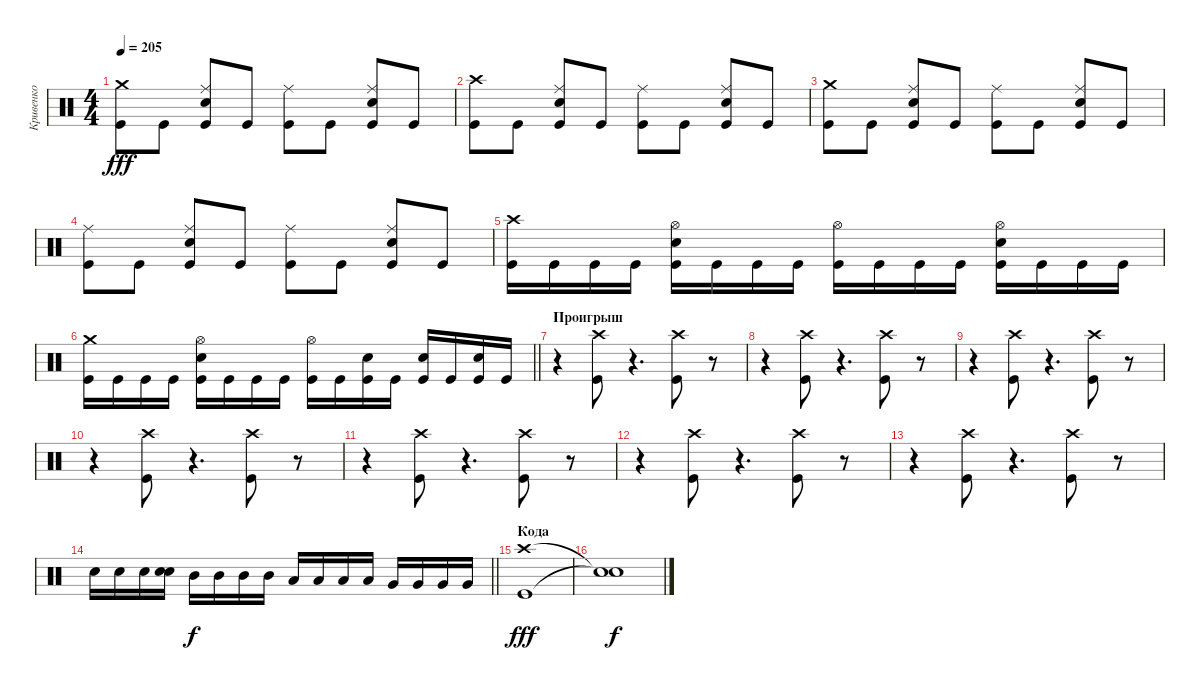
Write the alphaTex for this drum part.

\track ("Кривенко" "Кривенко") {instrument percussion}
\staff {score}
\articulation defaults
\ts (4 4)
\tempo 205
\clef neutral
\ks c
("Crash medium (hit)" "Kick (hit)").8{dy fff} "Kick (hit)".8 ("Ride (middle)" "Electric Snare (hit)" "Kick (hit)").8 "Kick (hit)".8 ("Ride (middle)" "Kick (hit)").8 "Kick (hit)".8 ("Ride (middle)" "Electric Snare (hit)" "Kick (hit)").8 "Kick (hit)".8 |
("Crash high (hit)" "Kick (hit)").8 "Kick (hit)".8 ("Ride (middle)" "Electric Snare (hit)" "Kick (hit)").8 "Kick (hit)".8 ("Ride (middle)" "Kick (hit)").8 "Kick (hit)".8 ("Ride (middle)" "Electric Snare (hit)" "Kick (hit)").8 "Kick (hit)".8 |
("Crash medium (hit)" "Kick (hit)").8 "Kick (hit)".8 ("Ride (middle)" "Electric Snare (hit)" "Kick (hit)").8 "Kick (hit)".8 ("Ride (middle)" "Kick (hit)").8 "Kick (hit)".8 ("Ride (middle)" "Electric Snare (hit)" "Kick (hit)").8 "Kick (hit)".8 |
("Ride (middle)" "Kick (hit)").8 "Kick (hit)".8 ("Ride (middle)" "Electric Snare (hit)" "Kick (hit)").8 "Kick (hit)".8 ("Ride (middle)" "Kick (hit)").8 "Kick (hit)".8 ("Ride (middle)" "Electric Snare (hit)" "Kick (hit)").8 "Kick (hit)".8 |
("Crash high (hit)" "Kick (hit)").16 "Kick (hit)".16 "Kick (hit)".16 "Kick (hit)".16 ("Hi-Hat (open)" "Electric Snare (hit)" "Kick (hit)").16 "Kick (hit)".16 "Kick (hit)".16 "Kick (hit)".16 ("Hi-Hat (open)" "Kick (hit)").16 "Kick (hit)".16 "Kick (hit)".16 "Kick (hit)".16 ("Hi-Hat (open)" "Electric Snare (hit)" "Kick (hit)").16 "Kick (hit)".16 "Kick (hit)".16 "Kick (hit)".16 |
\barLineRight lightlight
("Crash medium (hit)" "Kick (hit)").16 "Kick (hit)".16 "Kick (hit)".16 "Kick (hit)".16 ("Hi-Hat (open)" "Electric Snare (hit)" "Kick (hit)").16 "Kick (hit)".16 "Kick (hit)".16 "Kick (hit)".16 ("Hi-Hat (open)" "Kick (hit)").16 "Kick (hit)".16 ("Electric Snare (hit)" "Kick (hit)").16 "Kick (hit)".16 ("Electric Snare (hit)" "Kick (hit)").16 "Kick (hit)".16 ("Electric Snare (hit)" "Kick (hit)").16 "Kick (hit)".16 |
\section ("" "Проигрыш ")
r.4 ("Crash high (hit)" "Kick (hit)").8 r.4{d} ("Crash high (hit)" "Kick (hit)").8 r.8 |
r.4 ("Crash high (hit)" "Kick (hit)").8 r.4{d} ("Crash high (hit)" "Kick (hit)").8 r.8 |
r.4 ("Crash high (hit)" "Kick (hit)").8 r.4{d} ("Crash high (hit)" "Kick (hit)").8 r.8 |
r.4 ("Crash high (hit)" "Kick (hit)").8 r.4{d} ("Crash high (hit)" "Kick (hit)").8 r.8 |
r.4 ("Crash high (hit)" "Kick (hit)").8 r.4{d} ("Crash high (hit)" "Kick (hit)").8 r.8 |
r.4 ("Crash high (hit)" "Kick (hit)").8 r.4{d} ("Crash high (hit)" "Kick (hit)").8 r.8 |
r.4 ("Crash high (hit)" "Kick (hit)").8 r.4{d} ("Crash high (hit)" "Kick (hit)").8 r.8 |
\barLineRight lightlight "Electric Snare (hit)".16 "Electric Snare (hit)".16 "Electric Snare (hit)".16
("Electric Snare (hit)" "Electric Snare (hit)").16 "Mid Tom (hit)".16{dy f} "Mid Tom (hit)".16 "Mid Tom (hit)".16 "Mid Tom (hit)".16 "Low Tom (hit)".16 "Low Tom (hit)".16 "Low Tom (hit)".16 "Low Tom (hit)".16 "Very Low Tom (hit)".16 "Very Low Tom (hit)".16 "Very Low Tom (hit)".16 "Very Low Tom (hit)".16 |
\section ("" "Кода")
("Crash high (hit)" "Kick (hit)").1{dy fff} |
("Snare (hit)"{t} "Snare (hit)"{t}).1{dy f}
